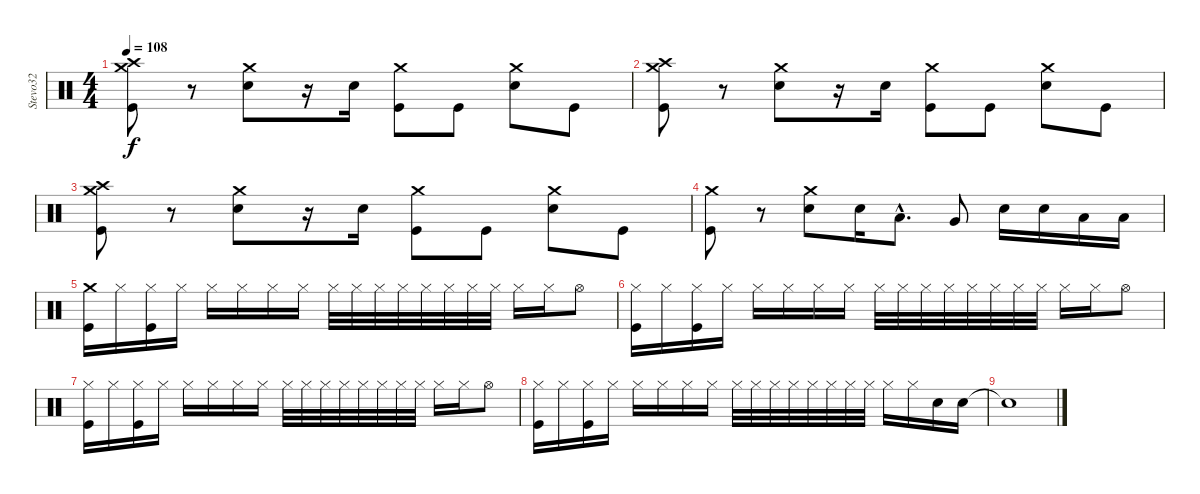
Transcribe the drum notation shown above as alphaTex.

\track ("Stevo32" "Stevo32") {instrument percussion}
\staff {score}
\articulation defaults
\ts (4 4)
\tempo 108
\clef neutral
\ks c
("Crash high (hit)" "Crash medium (hit)" "Kick (hit)").8{dy f} r.8 ("Crash medium (hit)" "Electric Snare (hit)").8 r.16 "Electric Snare (hit)".16 ("Crash medium (hit)" "Kick (hit)").8 "Kick (hit)".8 ("Crash medium (hit)" "Electric Snare (hit)").8 "Kick (hit)".8 |
("Crash high (hit)" "Crash medium (hit)" "Kick (hit)").8 r.8 ("Crash medium (hit)" "Electric Snare (hit)").8 r.16 "Electric Snare (hit)".16 ("Crash medium (hit)" "Kick (hit)").8 "Kick (hit)".8 ("Crash medium (hit)" "Electric Snare (hit)").8 "Kick (hit)".8 |
("Crash high (hit)" "Crash medium (hit)" "Kick (hit)").8 r.8 ("Crash medium (hit)" "Electric Snare (hit)").8 r.16 "Electric Snare (hit)".16 ("Crash medium (hit)" "Kick (hit)").8 "Kick (hit)".8 ("Crash medium (hit)" "Electric Snare (hit)").8 "Kick (hit)".8 |
("Crash medium (hit)" "Kick (hit)").8 r.8 ("Crash medium (hit)" "Electric Snare (hit)").8 "Electric Snare (hit)".16 "Low Tom (hit)"{hac}.8{d} "Very Low Tom (hit)".8 "Electric Snare (hit)".16 "Electric Snare (hit)".16 "Low Tom (hit)".16 "Low Tom (hit)".16 |
("Crash medium (hit)" "Kick (hit)").16 "Hi-Hat (closed)".16 ("Hi-Hat (closed)" "Kick (hit)").16 "Hi-Hat (closed)".16 "Hi-Hat (closed)".16 "Hi-Hat (closed)".16 "Hi-Hat (closed)".16 "Hi-Hat (closed)".16 "Hi-Hat (closed)".32 "Hi-Hat (closed)".32 "Hi-Hat (closed)".32 "Hi-Hat (closed)".32 "Hi-Hat (closed)".32 "Hi-Hat (closed)".32 "Hi-Hat (closed)".32 "Hi-Hat (closed)".32 "Hi-Hat (closed)".16 "Hi-Hat (closed)".16 "Hi-Hat (open)".8 |
("Hi-Hat (closed)" "Kick (hit)").16 "Hi-Hat (closed)".16 ("Hi-Hat (closed)" "Kick (hit)").16 "Hi-Hat (closed)".16 "Hi-Hat (closed)".16 "Hi-Hat (closed)".16 "Hi-Hat (closed)".16 "Hi-Hat (closed)".16 "Hi-Hat (closed)".32 "Hi-Hat (closed)".32 "Hi-Hat (closed)".32 "Hi-Hat (closed)".32 "Hi-Hat (closed)".32 "Hi-Hat (closed)".32 "Hi-Hat (closed)".32 "Hi-Hat (closed)".32 "Hi-Hat (closed)".16 "Hi-Hat (closed)".16 "Hi-Hat (open)".8 |
("Hi-Hat (closed)" "Kick (hit)").16 "Hi-Hat (closed)".16 ("Hi-Hat (closed)" "Kick (hit)").16 "Hi-Hat (closed)".16 "Hi-Hat (closed)".16 "Hi-Hat (closed)".16 "Hi-Hat (closed)".16 "Hi-Hat (closed)".16 "Hi-Hat (closed)".32 "Hi-Hat (closed)".32 "Hi-Hat (closed)".32 "Hi-Hat (closed)".32 "Hi-Hat (closed)".32 "Hi-Hat (closed)".32 "Hi-Hat (closed)".32 "Hi-Hat (closed)".32 "Hi-Hat (closed)".16 "Hi-Hat (closed)".16 "Hi-Hat (open)".8 |
("Hi-Hat (closed)" "Kick (hit)").16 "Hi-Hat (closed)".16 ("Hi-Hat (closed)" "Kick (hit)").16 "Hi-Hat (closed)".16 "Hi-Hat (closed)".16 "Hi-Hat (closed)".16 "Hi-Hat (closed)".16 "Hi-Hat (closed)".16 "Hi-Hat (closed)".32 "Hi-Hat (closed)".32 "Hi-Hat (closed)".32 "Hi-Hat (closed)".32 "Hi-Hat (closed)".32 "Hi-Hat (closed)".32 "Hi-Hat (closed)".32 "Hi-Hat (closed)".32 "Hi-Hat (closed)".16 "Hi-Hat (closed)".16 "Electric Snare (hit)".16 "Electric Snare (hit)".16 |
"Snare (hit)"{t}.1
